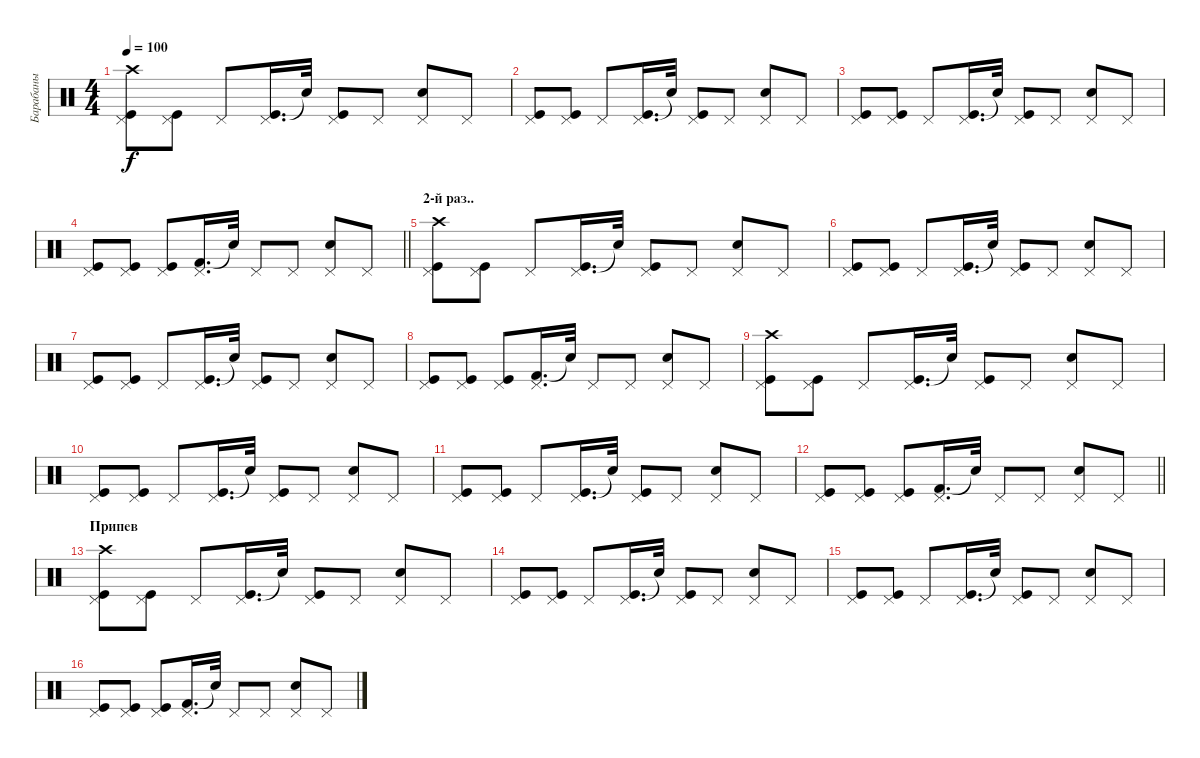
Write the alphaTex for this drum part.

\track ("Барабаны" "Барабаны") {instrument percussion}
\staff {score}
\articulation defaults
\ts (4 4)
\tempo 100
\clef neutral
\ks c
("Crash high (hit)" "Kick (hit)" "Pedal Hi-Hat (hit)").8{dy f} ("Kick (hit)" "Pedal Hi-Hat (hit)").8 "Pedal Hi-Hat (hit)".8 ("Kick (hit)" "Pedal Hi-Hat (hit)").16{d} "Snare (hit)"{t}.32 ("Kick (hit)" "Pedal Hi-Hat (hit)").8 "Pedal Hi-Hat (hit)".8 ("Snare (hit) 2" "Pedal Hi-Hat (hit)").8 "Pedal Hi-Hat (hit)".8 |
("Kick (hit)" "Pedal Hi-Hat (hit)").8 ("Kick (hit)" "Pedal Hi-Hat (hit)").8 "Pedal Hi-Hat (hit)".8 ("Kick (hit)" "Pedal Hi-Hat (hit)").16{d} "Snare (hit)"{t}.32 ("Kick (hit)" "Pedal Hi-Hat (hit)").8 "Pedal Hi-Hat (hit)".8 ("Snare (hit) 2" "Pedal Hi-Hat (hit)").8 "Pedal Hi-Hat (hit)".8 |
("Kick (hit)" "Pedal Hi-Hat (hit)").8 ("Kick (hit)" "Pedal Hi-Hat (hit)").8 "Pedal Hi-Hat (hit)".8 ("Kick (hit)" "Pedal Hi-Hat (hit)").16{d} "Snare (hit)"{t}.32 ("Kick (hit)" "Pedal Hi-Hat (hit)").8 "Pedal Hi-Hat (hit)".8 ("Snare (hit) 2" "Pedal Hi-Hat (hit)").8 "Pedal Hi-Hat (hit)".8 |
\barLineRight lightlight
("Kick (hit)" "Pedal Hi-Hat (hit)").8 ("Kick (hit)" "Pedal Hi-Hat (hit)").8 ("Kick (hit)" "Pedal Hi-Hat (hit)").8 ("Kick (hit) 2" "Pedal Hi-Hat (hit)").16{d} "Snare (hit)"{t}.32 "Pedal Hi-Hat (hit)".8 "Pedal Hi-Hat (hit)".8 ("Snare (hit) 2" "Pedal Hi-Hat (hit)").8 "Pedal Hi-Hat (hit)".8 |
\section ("" "2-й раз..")
("Crash high (hit)" "Kick (hit)" "Pedal Hi-Hat (hit)").8 ("Kick (hit)" "Pedal Hi-Hat (hit)").8 "Pedal Hi-Hat (hit)".8 ("Kick (hit)" "Pedal Hi-Hat (hit)").16{d} "Snare (hit)"{t}.32 ("Kick (hit)" "Pedal Hi-Hat (hit)").8 "Pedal Hi-Hat (hit)".8 ("Snare (hit) 2" "Pedal Hi-Hat (hit)").8 "Pedal Hi-Hat (hit)".8 |
("Kick (hit)" "Pedal Hi-Hat (hit)").8 ("Kick (hit)" "Pedal Hi-Hat (hit)").8 "Pedal Hi-Hat (hit)".8 ("Kick (hit)" "Pedal Hi-Hat (hit)").16{d} "Snare (hit)"{t}.32 ("Kick (hit)" "Pedal Hi-Hat (hit)").8 "Pedal Hi-Hat (hit)".8 ("Snare (hit) 2" "Pedal Hi-Hat (hit)").8 "Pedal Hi-Hat (hit)".8 |
("Kick (hit)" "Pedal Hi-Hat (hit)").8 ("Kick (hit)" "Pedal Hi-Hat (hit)").8 "Pedal Hi-Hat (hit)".8 ("Kick (hit)" "Pedal Hi-Hat (hit)").16{d} "Snare (hit)"{t}.32 ("Kick (hit)" "Pedal Hi-Hat (hit)").8 "Pedal Hi-Hat (hit)".8 ("Snare (hit) 2" "Pedal Hi-Hat (hit)").8 "Pedal Hi-Hat (hit)".8 |
("Kick (hit)" "Pedal Hi-Hat (hit)").8 ("Kick (hit)" "Pedal Hi-Hat (hit)").8 ("Kick (hit)" "Pedal Hi-Hat (hit)").8 ("Kick (hit) 2" "Pedal Hi-Hat (hit)").16{d} "Snare (hit)"{t}.32 "Pedal Hi-Hat (hit)".8 "Pedal Hi-Hat (hit)".8 ("Snare (hit) 2" "Pedal Hi-Hat (hit)").8 "Pedal Hi-Hat (hit)".8 |
("Crash high (hit)" "Kick (hit)" "Pedal Hi-Hat (hit)").8 ("Kick (hit)" "Pedal Hi-Hat (hit)").8 "Pedal Hi-Hat (hit)".8 ("Kick (hit)" "Pedal Hi-Hat (hit)").16{d} "Snare (hit)"{t}.32 ("Kick (hit)" "Pedal Hi-Hat (hit)").8 "Pedal Hi-Hat (hit)".8 ("Snare (hit) 2" "Pedal Hi-Hat (hit)").8 "Pedal Hi-Hat (hit)".8 |
("Kick (hit)" "Pedal Hi-Hat (hit)").8 ("Kick (hit)" "Pedal Hi-Hat (hit)").8 "Pedal Hi-Hat (hit)".8 ("Kick (hit)" "Pedal Hi-Hat (hit)").16{d} "Snare (hit)"{t}.32 ("Kick (hit)" "Pedal Hi-Hat (hit)").8 "Pedal Hi-Hat (hit)".8 ("Snare (hit) 2" "Pedal Hi-Hat (hit)").8 "Pedal Hi-Hat (hit)".8 |
("Kick (hit)" "Pedal Hi-Hat (hit)").8 ("Kick (hit)" "Pedal Hi-Hat (hit)").8 "Pedal Hi-Hat (hit)".8 ("Kick (hit)" "Pedal Hi-Hat (hit)").16{d} "Snare (hit)"{t}.32 ("Kick (hit)" "Pedal Hi-Hat (hit)").8 "Pedal Hi-Hat (hit)".8 ("Snare (hit) 2" "Pedal Hi-Hat (hit)").8 "Pedal Hi-Hat (hit)".8 |
\barLineRight lightlight
("Kick (hit)" "Pedal Hi-Hat (hit)").8 ("Kick (hit)" "Pedal Hi-Hat (hit)").8 ("Kick (hit)" "Pedal Hi-Hat (hit)").8 ("Kick (hit) 2" "Pedal Hi-Hat (hit)").16{d} "Snare (hit)"{t}.32 "Pedal Hi-Hat (hit)".8 "Pedal Hi-Hat (hit)".8 ("Snare (hit) 2" "Pedal Hi-Hat (hit)").8 "Pedal Hi-Hat (hit)".8 |
\section ("" "Припев")
("Crash high (hit)" "Kick (hit)" "Pedal Hi-Hat (hit)").8 ("Kick (hit)" "Pedal Hi-Hat (hit)").8 "Pedal Hi-Hat (hit)".8 ("Kick (hit)" "Pedal Hi-Hat (hit)").16{d} "Snare (hit)"{t}.32 ("Kick (hit)" "Pedal Hi-Hat (hit)").8 "Pedal Hi-Hat (hit)".8 ("Snare (hit) 2" "Pedal Hi-Hat (hit)").8 "Pedal Hi-Hat (hit)".8 |
("Kick (hit)" "Pedal Hi-Hat (hit)").8 ("Kick (hit)" "Pedal Hi-Hat (hit)").8 "Pedal Hi-Hat (hit)".8 ("Kick (hit)" "Pedal Hi-Hat (hit)").16{d} "Snare (hit)"{t}.32 ("Kick (hit)" "Pedal Hi-Hat (hit)").8 "Pedal Hi-Hat (hit)".8 ("Snare (hit) 2" "Pedal Hi-Hat (hit)").8 "Pedal Hi-Hat (hit)".8 |
("Kick (hit)" "Pedal Hi-Hat (hit)").8 ("Kick (hit)" "Pedal Hi-Hat (hit)").8 "Pedal Hi-Hat (hit)".8 ("Kick (hit)" "Pedal Hi-Hat (hit)").16{d} "Snare (hit)"{t}.32 ("Kick (hit)" "Pedal Hi-Hat (hit)").8 "Pedal Hi-Hat (hit)".8 ("Snare (hit) 2" "Pedal Hi-Hat (hit)").8 "Pedal Hi-Hat (hit)".8 |
("Kick (hit)" "Pedal Hi-Hat (hit)").8 ("Kick (hit)" "Pedal Hi-Hat (hit)").8 ("Kick (hit)" "Pedal Hi-Hat (hit)").8 ("Kick (hit) 2" "Pedal Hi-Hat (hit)").16{d} "Snare (hit)"{t}.32 "Pedal Hi-Hat (hit)".8 "Pedal Hi-Hat (hit)".8 ("Snare (hit) 2" "Pedal Hi-Hat (hit)").8 "Pedal Hi-Hat (hit)".8
